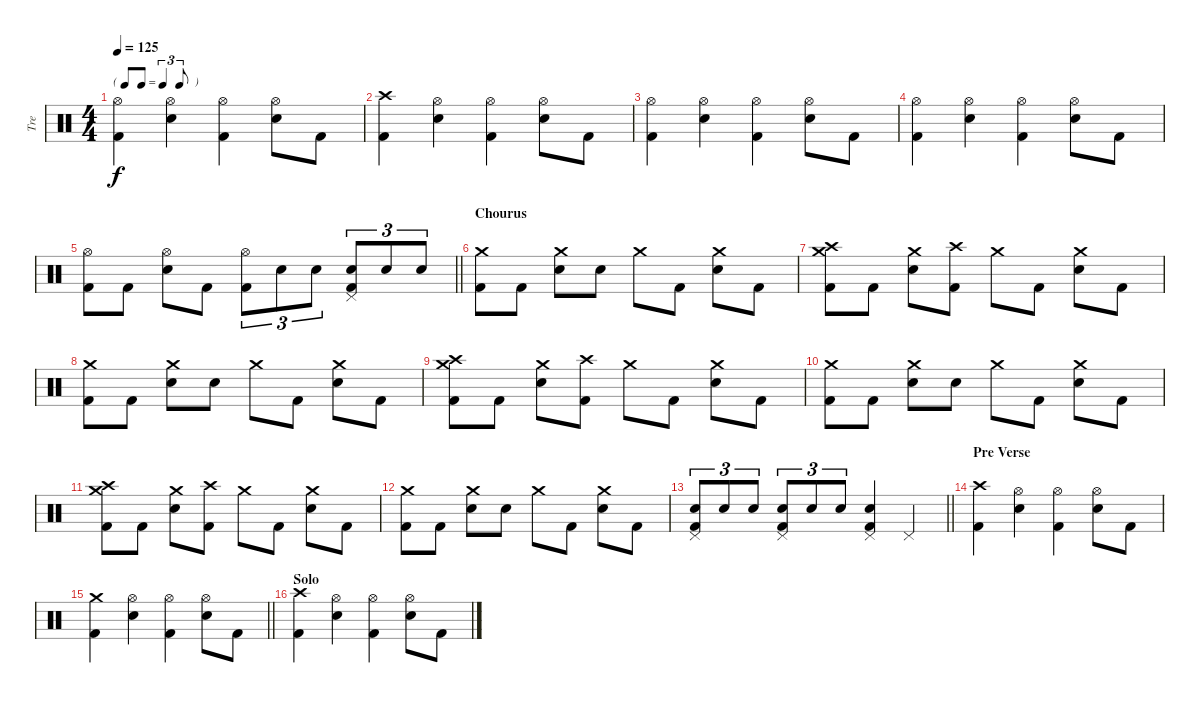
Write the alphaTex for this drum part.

\track ("Tre" "Tre") {instrument percussion}
\staff {score}
\articulation defaults
\ts (4 4)
\tf triplet8th
\tempo 125
\clef neutral
\ks c
("Hi-Hat (open)" "Kick (hit) 2").4{dy f} ("Hi-Hat (open)" "Snare (hit) 2").4 ("Hi-Hat (open)" "Kick (hit) 2").4 ("Hi-Hat (open)" "Snare (hit) 2").8 "Kick (hit) 2".8 |
("Crash high (hit)" "Kick (hit) 2").4 ("Hi-Hat (open)" "Snare (hit) 2").4 ("Hi-Hat (open)" "Kick (hit) 2").4 ("Hi-Hat (open)" "Snare (hit) 2").8 "Kick (hit) 2".8 |
("Hi-Hat (open)" "Kick (hit) 2").4 ("Hi-Hat (open)" "Snare (hit) 2").4 ("Hi-Hat (open)" "Kick (hit) 2").4 ("Hi-Hat (open)" "Snare (hit) 2").8 "Kick (hit) 2".8 |
("Hi-Hat (open)" "Kick (hit) 2").4 ("Hi-Hat (open)" "Snare (hit) 2").4 ("Hi-Hat (open)" "Kick (hit) 2").4 ("Hi-Hat (open)" "Snare (hit) 2").8 "Kick (hit) 2".8 |
\barLineRight lightlight
("Hi-Hat (open)" "Kick (hit) 2").8 "Kick (hit) 2".8 ("Hi-Hat (open)" "Snare (hit) 2").8 "Kick (hit) 2".8 ("Hi-Hat (open)" "Kick (hit) 2").8{tu (3 2)} "Snare (hit) 2".8{tu (3 2)} "Snare (hit) 2".8{tu (3 2)} ("Snare (hit) 2" "Pedal Hi-Hat (hit)" "Kick (hit) 2").8{tu (3 2)} "Snare (hit) 2".8{tu (3 2)} "Snare (hit) 2".8{tu (3 2)} |
\section ("" "Chourus")
("Crash medium (hit)" "Kick (hit) 2").8 "Kick (hit) 2".8 ("Crash medium (hit)" "Snare (hit) 2").8 "Snare (hit) 2".8 "Crash medium (hit)".8 "Kick (hit) 2".8 ("Crash medium (hit)" "Snare (hit) 2").8 "Kick (hit) 2".8 |
("Crash medium (hit)" "Crash high (hit)" "Kick (hit) 2").8 "Kick (hit) 2".8 ("Crash medium (hit)" "Snare (hit) 2").8 ("Crash high (hit)" "Kick (hit) 2").8 "Crash medium (hit)".8 "Kick (hit) 2".8 ("Crash medium (hit)" "Snare (hit) 2").8 "Kick (hit) 2".8 |
("Crash medium (hit)" "Kick (hit) 2").8 "Kick (hit) 2".8 ("Crash medium (hit)" "Snare (hit) 2").8 "Snare (hit) 2".8 "Crash medium (hit)".8 "Kick (hit) 2".8 ("Crash medium (hit)" "Snare (hit) 2").8 "Kick (hit) 2".8 |
("Crash medium (hit)" "Crash high (hit)" "Kick (hit) 2").8 "Kick (hit) 2".8 ("Crash medium (hit)" "Snare (hit) 2").8 ("Crash high (hit)" "Kick (hit) 2").8 "Crash medium (hit)".8 "Kick (hit) 2".8 ("Crash medium (hit)" "Snare (hit) 2").8 "Kick (hit) 2".8 |
("Crash medium (hit)" "Kick (hit) 2").8 "Kick (hit) 2".8 ("Crash medium (hit)" "Snare (hit) 2").8 "Snare (hit) 2".8 "Crash medium (hit)".8 "Kick (hit) 2".8 ("Crash medium (hit)" "Snare (hit) 2").8 "Kick (hit) 2".8 |
("Crash medium (hit)" "Crash high (hit)" "Kick (hit) 2").8 "Kick (hit) 2".8 ("Crash medium (hit)" "Snare (hit) 2").8 ("Crash high (hit)" "Kick (hit) 2").8 "Crash medium (hit)".8 "Kick (hit) 2".8 ("Crash medium (hit)" "Snare (hit) 2").8 "Kick (hit) 2".8 |
("Crash medium (hit)" "Kick (hit) 2").8 "Kick (hit) 2".8 ("Crash medium (hit)" "Snare (hit) 2").8 "Snare (hit) 2".8 "Crash medium (hit)".8 "Kick (hit) 2".8 ("Crash medium (hit)" "Snare (hit) 2").8 "Kick (hit) 2".8 |
\barLineRight lightlight
("Snare (hit) 2" "Pedal Hi-Hat (hit)" "Kick (hit) 2").8{tu (3 2)} "Snare (hit) 2".8{tu (3 2)} "Snare (hit) 2".8{tu (3 2)} ("Snare (hit) 2" "Pedal Hi-Hat (hit)" "Kick (hit) 2").8{tu (3 2)} "Snare (hit) 2".8{tu (3 2)} "Snare (hit) 2".8{tu (3 2)} ("Snare (hit) 2" "Pedal Hi-Hat (hit)" "Kick (hit) 2").4 "Pedal Hi-Hat (hit)".4 |
\section ("" "Pre Verse")
("Crash high (hit)" "Kick (hit) 2").4 ("Hi-Hat (open)" "Snare (hit) 2").4 ("Hi-Hat (open)" "Kick (hit) 2").4 ("Hi-Hat (open)" "Snare (hit) 2").8 "Kick (hit) 2".8 |
\barLineRight lightlight
("Crash medium (hit)" "Kick (hit) 2").4 ("Hi-Hat (open)" "Snare (hit) 2").4 ("Hi-Hat (open)" "Kick (hit) 2").4 ("Hi-Hat (open)" "Snare (hit) 2").8 "Kick (hit) 2".8 |
\section ("" "Solo")
("Crash high (hit)" "Kick (hit) 2").4 ("Hi-Hat (open)" "Snare (hit) 2").4 ("Hi-Hat (open)" "Kick (hit) 2").4 ("Hi-Hat (open)" "Snare (hit) 2").8 "Kick (hit) 2".8
